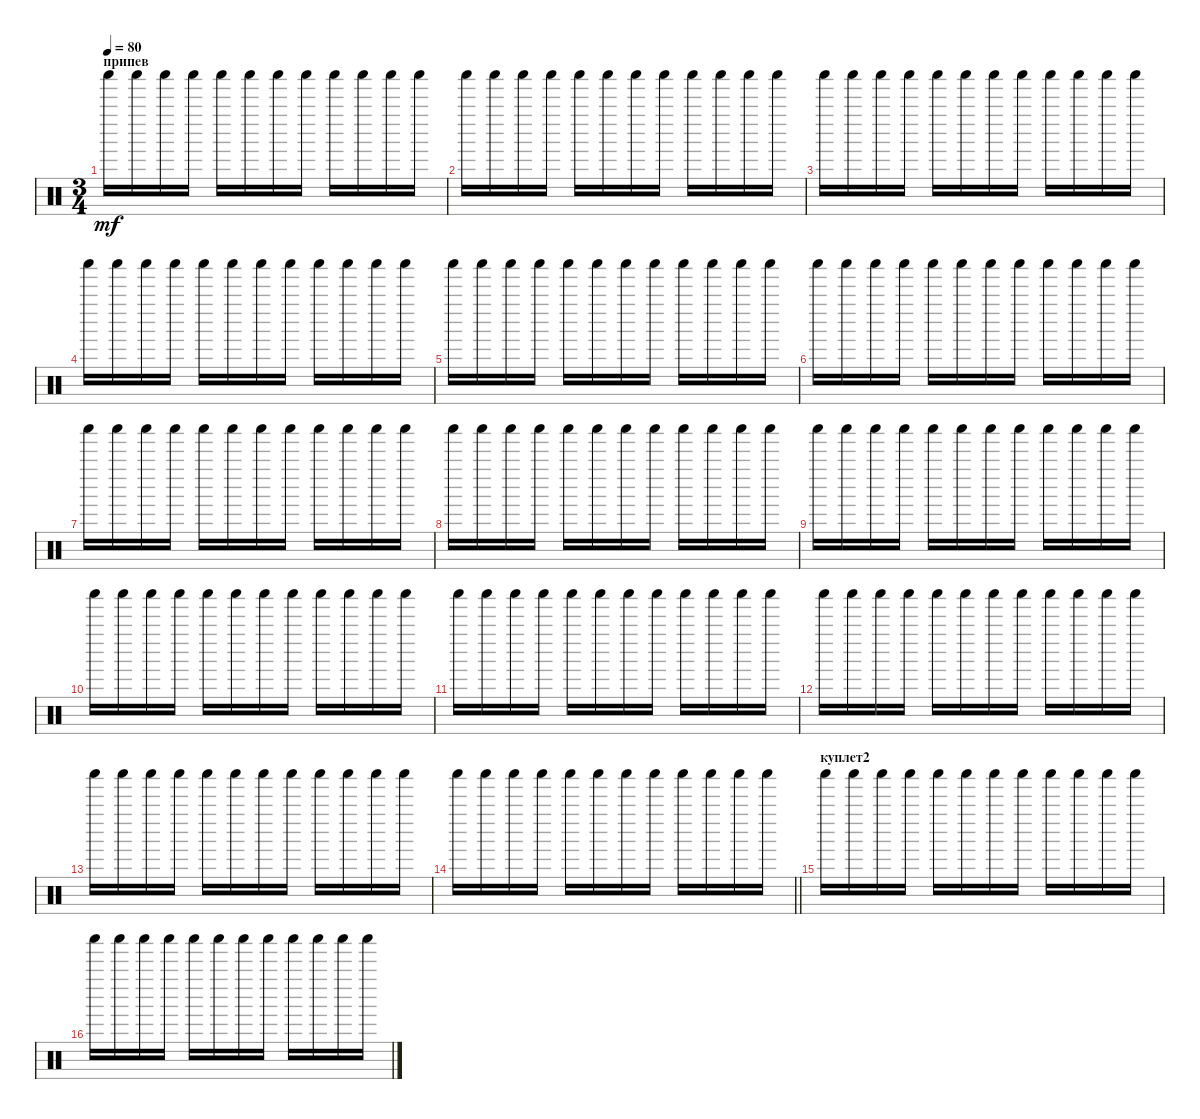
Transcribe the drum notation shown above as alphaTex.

\track "" {instrument percussion}
\staff {score}
\articulation defaults
\ts (3 4)
\section ("" "припев")
\tempo 80
\clef neutral
\ks c "Shaker (hit)".16{dy mf} "Shaker (hit)".16 "Shaker (hit)".16 "Shaker (hit)".16 "Shaker (hit)".16 "Shaker (hit)".16 "Shaker (hit)".16 "Shaker (hit)".16 "Shaker (hit)".16 "Shaker (hit)".16 "Shaker (hit)".16 "Shaker (hit)".16
|
"Shaker (hit)".16 "Shaker (hit)".16 "Shaker (hit)".16 "Shaker (hit)".16 "Shaker (hit)".16 "Shaker (hit)".16 "Shaker (hit)".16 "Shaker (hit)".16 "Shaker (hit)".16 "Shaker (hit)".16 "Shaker (hit)".16 "Shaker (hit)".16 |
"Shaker (hit)".16 "Shaker (hit)".16 "Shaker (hit)".16 "Shaker (hit)".16 "Shaker (hit)".16 "Shaker (hit)".16 "Shaker (hit)".16 "Shaker (hit)".16 "Shaker (hit)".16 "Shaker (hit)".16 "Shaker (hit)".16 "Shaker (hit)".16 |
"Shaker (hit)".16 "Shaker (hit)".16 "Shaker (hit)".16 "Shaker (hit)".16 "Shaker (hit)".16 "Shaker (hit)".16 "Shaker (hit)".16 "Shaker (hit)".16 "Shaker (hit)".16 "Shaker (hit)".16 "Shaker (hit)".16 "Shaker (hit)".16 |
"Shaker (hit)".16 "Shaker (hit)".16 "Shaker (hit)".16 "Shaker (hit)".16 "Shaker (hit)".16 "Shaker (hit)".16 "Shaker (hit)".16 "Shaker (hit)".16 "Shaker (hit)".16 "Shaker (hit)".16 "Shaker (hit)".16 "Shaker (hit)".16 |
"Shaker (hit)".16 "Shaker (hit)".16 "Shaker (hit)".16 "Shaker (hit)".16 "Shaker (hit)".16 "Shaker (hit)".16 "Shaker (hit)".16 "Shaker (hit)".16 "Shaker (hit)".16 "Shaker (hit)".16 "Shaker (hit)".16 "Shaker (hit)".16 |
"Shaker (hit)".16 "Shaker (hit)".16 "Shaker (hit)".16 "Shaker (hit)".16 "Shaker (hit)".16 "Shaker (hit)".16 "Shaker (hit)".16 "Shaker (hit)".16 "Shaker (hit)".16 "Shaker (hit)".16 "Shaker (hit)".16 "Shaker (hit)".16 |
"Shaker (hit)".16 "Shaker (hit)".16 "Shaker (hit)".16 "Shaker (hit)".16 "Shaker (hit)".16 "Shaker (hit)".16 "Shaker (hit)".16 "Shaker (hit)".16 "Shaker (hit)".16 "Shaker (hit)".16 "Shaker (hit)".16 "Shaker (hit)".16 |
"Shaker (hit)".16 "Shaker (hit)".16 "Shaker (hit)".16 "Shaker (hit)".16 "Shaker (hit)".16 "Shaker (hit)".16 "Shaker (hit)".16 "Shaker (hit)".16 "Shaker (hit)".16 "Shaker (hit)".16 "Shaker (hit)".16 "Shaker (hit)".16 |
"Shaker (hit)".16 "Shaker (hit)".16 "Shaker (hit)".16 "Shaker (hit)".16 "Shaker (hit)".16 "Shaker (hit)".16 "Shaker (hit)".16 "Shaker (hit)".16 "Shaker (hit)".16 "Shaker (hit)".16 "Shaker (hit)".16 "Shaker (hit)".16 |
"Shaker (hit)".16 "Shaker (hit)".16 "Shaker (hit)".16 "Shaker (hit)".16 "Shaker (hit)".16 "Shaker (hit)".16 "Shaker (hit)".16 "Shaker (hit)".16 "Shaker (hit)".16 "Shaker (hit)".16 "Shaker (hit)".16 "Shaker (hit)".16 |
"Shaker (hit)".16 "Shaker (hit)".16 "Shaker (hit)".16 "Shaker (hit)".16 "Shaker (hit)".16 "Shaker (hit)".16 "Shaker (hit)".16 "Shaker (hit)".16 "Shaker (hit)".16 "Shaker (hit)".16 "Shaker (hit)".16 "Shaker (hit)".16 |
"Shaker (hit)".16 "Shaker (hit)".16 "Shaker (hit)".16 "Shaker (hit)".16 "Shaker (hit)".16 "Shaker (hit)".16 "Shaker (hit)".16 "Shaker (hit)".16 "Shaker (hit)".16 "Shaker (hit)".16 "Shaker (hit)".16 "Shaker (hit)".16 |
\barLineRight lightlight "Shaker (hit)".16 "Shaker (hit)".16 "Shaker (hit)".16 "Shaker (hit)".16 "Shaker (hit)".16 "Shaker (hit)".16 "Shaker (hit)".16 "Shaker (hit)".16 "Shaker (hit)".16 "Shaker (hit)".16 "Shaker (hit)".16 "Shaker (hit)".16
|
\section ("" "куплет2")
"Shaker (hit)".16 "Shaker (hit)".16 "Shaker (hit)".16 "Shaker (hit)".16 "Shaker (hit)".16 "Shaker (hit)".16 "Shaker (hit)".16 "Shaker (hit)".16 "Shaker (hit)".16 "Shaker (hit)".16 "Shaker (hit)".16 "Shaker (hit)".16 |
"Shaker (hit)".16 "Shaker (hit)".16 "Shaker (hit)".16 "Shaker (hit)".16 "Shaker (hit)".16 "Shaker (hit)".16 "Shaker (hit)".16 "Shaker (hit)".16 "Shaker (hit)".16 "Shaker (hit)".16 "Shaker (hit)".16 "Shaker (hit)".16
